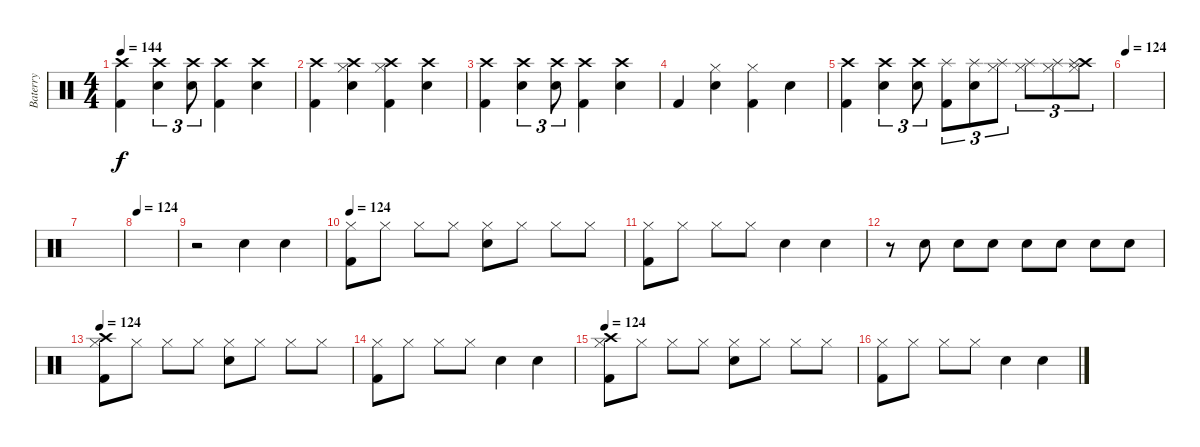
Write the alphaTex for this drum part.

\track ("Baterry" "Baterry") {instrument percussion}
\staff {score}
\articulation defaults
\ts (4 4)
\tempo 144
\clef neutral
\ks c
("Kick (hit) 2" "Crash high (hit)").4{dy f} ("Electric Snare (hit)" "Crash high (hit)").4{tu (3 2)} ("Electric Snare (hit)" "Crash high (hit)").8{tu (3 2)} ("Kick (hit) 2" "Crash high (hit)").4 ("Electric Snare (hit)" "Crash high (hit)").4 |
("Crash high (hit)" "Kick (hit) 2").4 ("Hi-Hat (closed)" "Crash high (hit)" "Electric Snare (hit)").4 ("Hi-Hat (closed)" "Crash high (hit)" "Kick (hit) 2").4 ("Crash high (hit)" "Electric Snare (hit)").4 |
("Kick (hit) 2" "Crash high (hit)").4 ("Electric Snare (hit)" "Crash high (hit)").4{tu (3 2)} ("Electric Snare (hit)" "Crash high (hit)").8{tu (3 2)} ("Kick (hit) 2" "Crash high (hit)").4 ("Electric Snare (hit)" "Crash high (hit)").4 |
"Kick (hit) 2".4 ("Hi-Hat (closed)" "Electric Snare (hit)").4 ("Hi-Hat (closed)" "Kick (hit) 2").4 "Electric Snare (hit)".4 |
("Kick (hit) 2" "Crash high (hit)").4 ("Electric Snare (hit)" "Crash high (hit)").4{tu (3 2)} ("Electric Snare (hit)" "Crash high (hit)").8{tu (3 2)} ("Kick (hit) 2" "Splash (hit)").8{tu (3 2)} ("Electric Snare (hit)" "Splash (hit)").8{tu (3 2)} ("Hi-Hat (closed)" "Splash (hit)").8{tu (3 2)} ("Hi-Hat (closed)" "Splash (hit)").8{tu (3 2)} ("Hi-Hat (closed)" "Splash (hit)").8{tu (3 2)} ("Crash high (hit)" "Hi-Hat (closed)" "Splash (hit)").8{tu (3 2)} |
\tempo 124
|
|
\tempo 124
|
r.2 "Electric Snare (hit)".4 "Electric Snare (hit)".4 |
\tempo 124
("Hi-Hat (closed)" "Kick (hit) 2").8 "Hi-Hat (closed)".8 "Hi-Hat (closed)".8 "Hi-Hat (closed)".8 ("Hi-Hat (closed)" "Electric Snare (hit)").8 "Hi-Hat (closed)".8 "Hi-Hat (closed)".8 "Hi-Hat (closed)".8 |
("Hi-Hat (closed)" "Kick (hit) 2").8 "Hi-Hat (closed)".8 "Hi-Hat (closed)".8 "Hi-Hat (closed)".8 "Electric Snare (hit)".4 "Electric Snare (hit)".4 |
r.8 "Electric Snare (hit)".8 "Electric Snare (hit)".8 "Electric Snare (hit)".8 "Electric Snare (hit)".8 "Electric Snare (hit)".8 "Electric Snare (hit)".8 "Electric Snare (hit)".8 |
\tempo 124
("Crash high (hit)" "Hi-Hat (closed)" "Kick (hit) 2").8 "Hi-Hat (closed)".8 "Hi-Hat (closed)".8 "Hi-Hat (closed)".8 ("Hi-Hat (closed)" "Electric Snare (hit)").8 "Hi-Hat (closed)".8 "Hi-Hat (closed)".8 "Hi-Hat (closed)".8 |
("Hi-Hat (closed)" "Kick (hit) 2").8 "Hi-Hat (closed)".8 "Hi-Hat (closed)".8 "Hi-Hat (closed)".8 "Electric Snare (hit)".4 "Electric Snare (hit)".4 |
\tempo 124
("Crash high (hit)" "Hi-Hat (closed)" "Kick (hit) 2").8 "Hi-Hat (closed)".8 "Hi-Hat (closed)".8 "Hi-Hat (closed)".8 ("Hi-Hat (closed)" "Electric Snare (hit)").8 "Hi-Hat (closed)".8 "Hi-Hat (closed)".8 "Hi-Hat (closed)".8 |
("Hi-Hat (closed)" "Kick (hit) 2").8 "Hi-Hat (closed)".8 "Hi-Hat (closed)".8 "Hi-Hat (closed)".8 "Electric Snare (hit)".4 "Electric Snare (hit)".4
